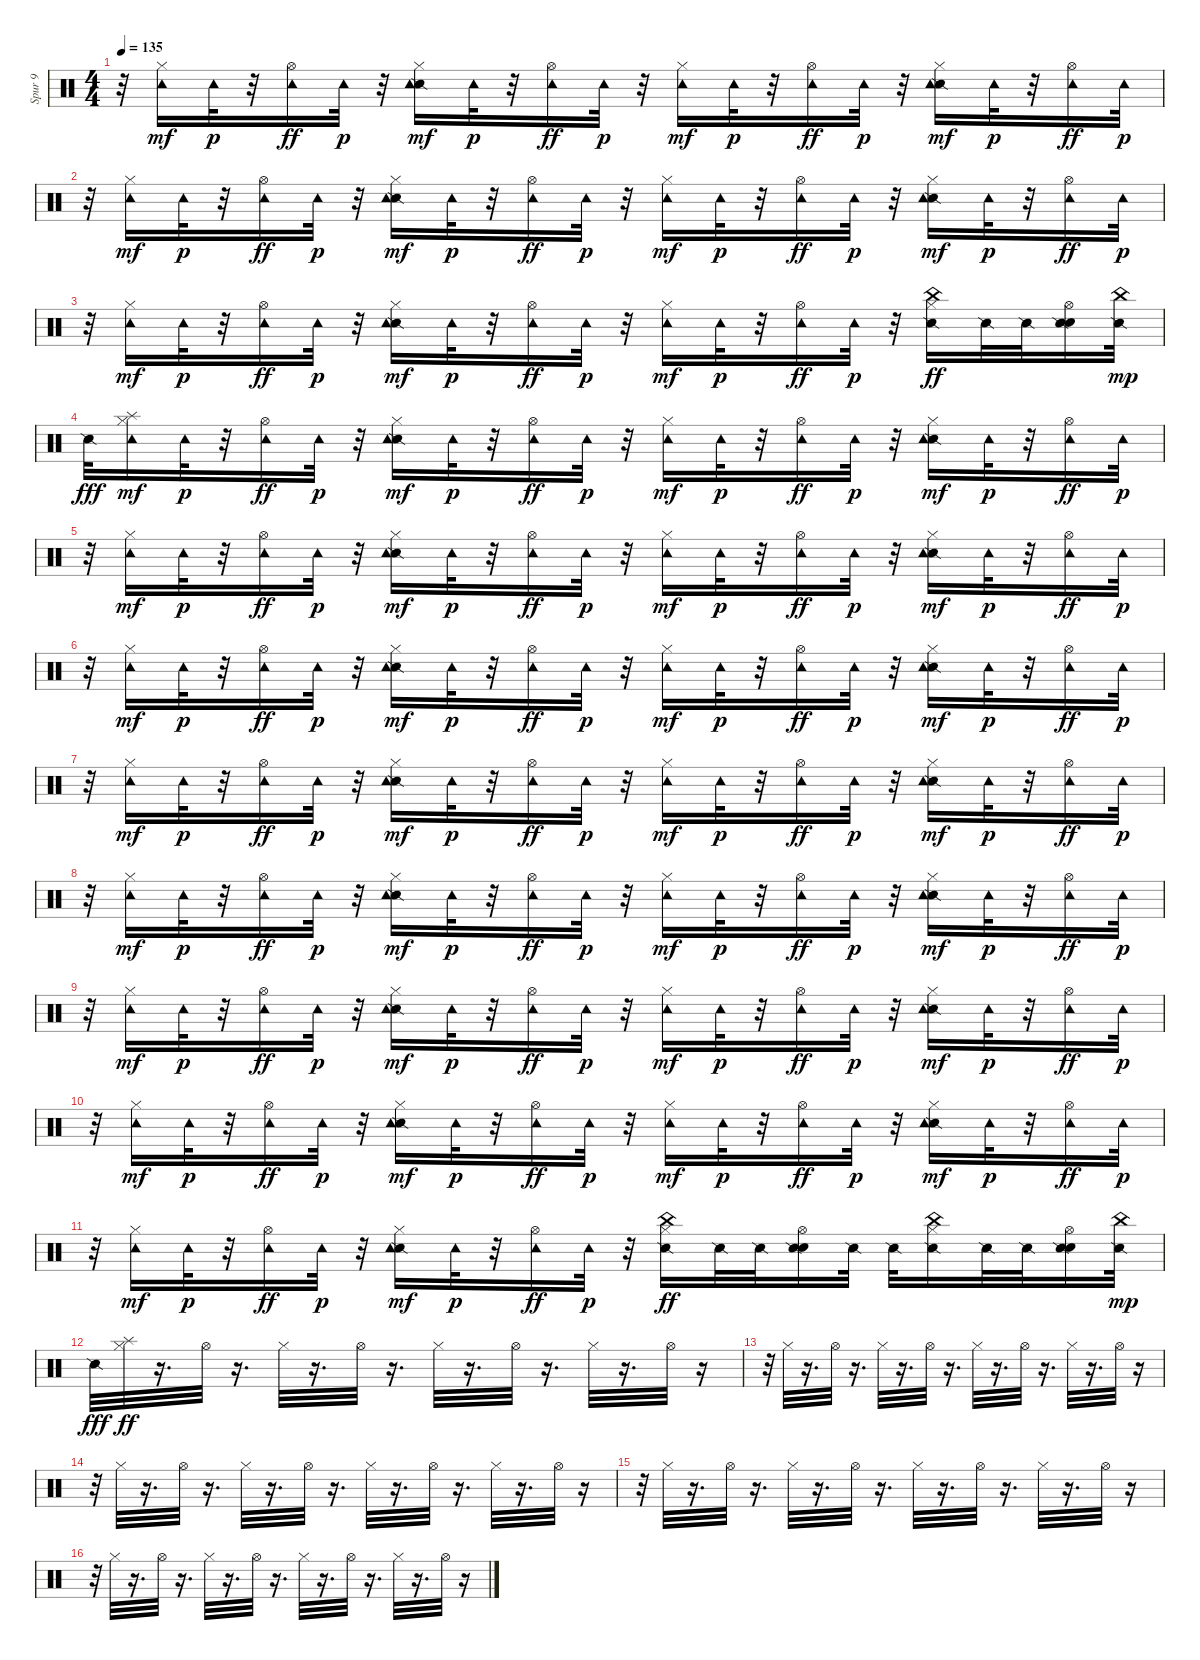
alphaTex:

\track ("Spur 9" "Spur 9") {instrument percussion}
\staff {score}
\articulation defaults
\ts (4 4)
\tempo 135
\clef neutral
\ks c
r.32{dy p} ("Hi-Hat (closed)" "Tambourine (hit)").16{dy mf} "Tambourine (hit)".32{dy p} r.32 ("Hi-Hat (open)" "Tambourine (hit)").16{dy ff} "Tambourine (hit)".32{dy p} r.32 ("Snare (side stick) 2" "Hi-Hat (closed)" "Tambourine (hit)").16{dy mf} "Tambourine (hit)".32{dy p} r.32 ("Hi-Hat (open)" "Tambourine (hit)").16{dy ff} "Tambourine (hit)".32{dy p} r.32 ("Hi-Hat (closed)" "Tambourine (hit)").16{dy mf} "Tambourine (hit)".32{dy p} r.32 ("Hi-Hat (open)" "Tambourine (hit)").16{dy ff} "Tambourine (hit)".32{dy p} r.32 ("Snare (side stick) 2" "Hi-Hat (closed)" "Tambourine (hit)").16{dy mf} "Tambourine (hit)".32{dy p} r.32 ("Hi-Hat (open)" "Tambourine (hit)").16{dy ff} "Tambourine (hit)".32{dy p} |
r.32 ("Hi-Hat (closed)" "Tambourine (hit)").16{dy mf} "Tambourine (hit)".32{dy p} r.32 ("Hi-Hat (open)" "Tambourine (hit)").16{dy ff} "Tambourine (hit)".32{dy p} r.32 ("Snare (side stick) 2" "Hi-Hat (closed)" "Tambourine (hit)").16{dy mf} "Tambourine (hit)".32{dy p} r.32 ("Hi-Hat (open)" "Tambourine (hit)").16{dy ff} "Tambourine (hit)".32{dy p} r.32 ("Hi-Hat (closed)" "Tambourine (hit)").16{dy mf} "Tambourine (hit)".32{dy p} r.32 ("Hi-Hat (open)" "Tambourine (hit)").16{dy ff} "Tambourine (hit)".32{dy p} r.32 ("Snare (side stick) 2" "Hi-Hat (closed)" "Tambourine (hit)").16{dy mf} "Tambourine (hit)".32{dy p} r.32 ("Hi-Hat (open)" "Tambourine (hit)").16{dy ff} "Tambourine (hit)".32{dy p} |
r.32 ("Hi-Hat (closed)" "Tambourine (hit)").16{dy mf} "Tambourine (hit)".32{dy p} r.32 ("Hi-Hat (open)" "Tambourine (hit)").16{dy ff} "Tambourine (hit)".32{dy p} r.32 ("Snare (side stick) 2" "Hi-Hat (closed)" "Tambourine (hit)").16{dy mf} "Tambourine (hit)".32{dy p} r.32 ("Hi-Hat (open)" "Tambourine (hit)").16{dy ff} "Tambourine (hit)".32{dy p} r.32 ("Hi-Hat (closed)" "Tambourine (hit)").16{dy mf} "Tambourine (hit)".32{dy p} r.32 ("Hi-Hat (open)" "Tambourine (hit)").16{dy ff} "Tambourine (hit)".32{dy p} r.32 ("Snare (side stick) 2" "Hi-Hat (closed)" "China (hit)").16{dy ff} "Snare (side stick) 2".32 "Snare (side stick) 2".32 ("Snare (hit)" "Snare (side stick) 2" "Hi-Hat (open)").16 ("Snare (side stick) 2" "China (hit)").32{dy mp} |
"Snare (side stick) 2".32{dy fff} ("Splash (hit)" "Hi-Hat (closed)" "Tambourine (hit)").16{dy mf} "Tambourine (hit)".32{dy p} r.32 ("Hi-Hat (open)" "Tambourine (hit)").16{dy ff} "Tambourine (hit)".32{dy p} r.32 ("Snare (side stick) 2" "Hi-Hat (closed)" "Tambourine (hit)").16{dy mf} "Tambourine (hit)".32{dy p} r.32 ("Hi-Hat (open)" "Tambourine (hit)").16{dy ff} "Tambourine (hit)".32{dy p} r.32 ("Hi-Hat (closed)" "Tambourine (hit)").16{dy mf} "Tambourine (hit)".32{dy p} r.32 ("Hi-Hat (open)" "Tambourine (hit)").16{dy ff} "Tambourine (hit)".32{dy p} r.32 ("Snare (side stick) 2" "Hi-Hat (closed)" "Tambourine (hit)").16{dy mf} "Tambourine (hit)".32{dy p} r.32 ("Hi-Hat (open)" "Tambourine (hit)").16{dy ff} "Tambourine (hit)".32{dy p} |
r.32 ("Hi-Hat (closed)" "Tambourine (hit)").16{dy mf} "Tambourine (hit)".32{dy p} r.32 ("Hi-Hat (open)" "Tambourine (hit)").16{dy ff} "Tambourine (hit)".32{dy p} r.32 ("Snare (side stick) 2" "Hi-Hat (closed)" "Tambourine (hit)").16{dy mf} "Tambourine (hit)".32{dy p} r.32 ("Hi-Hat (open)" "Tambourine (hit)").16{dy ff} "Tambourine (hit)".32{dy p} r.32 ("Hi-Hat (closed)" "Tambourine (hit)").16{dy mf} "Tambourine (hit)".32{dy p} r.32 ("Hi-Hat (open)" "Tambourine (hit)").16{dy ff} "Tambourine (hit)".32{dy p} r.32 ("Snare (side stick) 2" "Hi-Hat (closed)" "Tambourine (hit)").16{dy mf} "Tambourine (hit)".32{dy p} r.32 ("Hi-Hat (open)" "Tambourine (hit)").16{dy ff} "Tambourine (hit)".32{dy p} |
r.32 ("Hi-Hat (closed)" "Tambourine (hit)").16{dy mf} "Tambourine (hit)".32{dy p} r.32 ("Hi-Hat (open)" "Tambourine (hit)").16{dy ff} "Tambourine (hit)".32{dy p} r.32 ("Snare (side stick) 2" "Hi-Hat (closed)" "Tambourine (hit)").16{dy mf} "Tambourine (hit)".32{dy p} r.32 ("Hi-Hat (open)" "Tambourine (hit)").16{dy ff} "Tambourine (hit)".32{dy p} r.32 ("Hi-Hat (closed)" "Tambourine (hit)").16{dy mf} "Tambourine (hit)".32{dy p} r.32 ("Hi-Hat (open)" "Tambourine (hit)").16{dy ff} "Tambourine (hit)".32{dy p} r.32 ("Snare (side stick) 2" "Hi-Hat (closed)" "Tambourine (hit)").16{dy mf} "Tambourine (hit)".32{dy p} r.32 ("Hi-Hat (open)" "Tambourine (hit)").16{dy ff} "Tambourine (hit)".32{dy p} |
r.32 ("Hi-Hat (closed)" "Tambourine (hit)").16{dy mf} "Tambourine (hit)".32{dy p} r.32 ("Hi-Hat (open)" "Tambourine (hit)").16{dy ff} "Tambourine (hit)".32{dy p} r.32 ("Snare (side stick) 2" "Hi-Hat (closed)" "Tambourine (hit)").16{dy mf} "Tambourine (hit)".32{dy p} r.32 ("Hi-Hat (open)" "Tambourine (hit)").16{dy ff} "Tambourine (hit)".32{dy p} r.32 ("Hi-Hat (closed)" "Tambourine (hit)").16{dy mf} "Tambourine (hit)".32{dy p} r.32 ("Hi-Hat (open)" "Tambourine (hit)").16{dy ff} "Tambourine (hit)".32{dy p} r.32 ("Snare (side stick) 2" "Hi-Hat (closed)" "Tambourine (hit)").16{dy mf} "Tambourine (hit)".32{dy p} r.32 ("Hi-Hat (open)" "Tambourine (hit)").16{dy ff} "Tambourine (hit)".32{dy p} |
r.32 ("Hi-Hat (closed)" "Tambourine (hit)").16{dy mf} "Tambourine (hit)".32{dy p} r.32 ("Hi-Hat (open)" "Tambourine (hit)").16{dy ff} "Tambourine (hit)".32{dy p} r.32 ("Snare (side stick) 2" "Hi-Hat (closed)" "Tambourine (hit)").16{dy mf} "Tambourine (hit)".32{dy p} r.32 ("Hi-Hat (open)" "Tambourine (hit)").16{dy ff} "Tambourine (hit)".32{dy p} r.32 ("Hi-Hat (closed)" "Tambourine (hit)").16{dy mf} "Tambourine (hit)".32{dy p} r.32 ("Hi-Hat (open)" "Tambourine (hit)").16{dy ff} "Tambourine (hit)".32{dy p} r.32 ("Snare (side stick) 2" "Hi-Hat (closed)" "Tambourine (hit)").16{dy mf} "Tambourine (hit)".32{dy p} r.32 ("Hi-Hat (open)" "Tambourine (hit)").16{dy ff} "Tambourine (hit)".32{dy p} |
r.32 ("Hi-Hat (closed)" "Tambourine (hit)").16{dy mf} "Tambourine (hit)".32{dy p} r.32 ("Hi-Hat (open)" "Tambourine (hit)").16{dy ff} "Tambourine (hit)".32{dy p} r.32 ("Snare (side stick) 2" "Hi-Hat (closed)" "Tambourine (hit)").16{dy mf} "Tambourine (hit)".32{dy p} r.32 ("Hi-Hat (open)" "Tambourine (hit)").16{dy ff} "Tambourine (hit)".32{dy p} r.32 ("Hi-Hat (closed)" "Tambourine (hit)").16{dy mf} "Tambourine (hit)".32{dy p} r.32 ("Hi-Hat (open)" "Tambourine (hit)").16{dy ff} "Tambourine (hit)".32{dy p} r.32 ("Snare (side stick) 2" "Hi-Hat (closed)" "Tambourine (hit)").16{dy mf} "Tambourine (hit)".32{dy p} r.32 ("Hi-Hat (open)" "Tambourine (hit)").16{dy ff} "Tambourine (hit)".32{dy p} |
r.32 ("Hi-Hat (closed)" "Tambourine (hit)").16{dy mf} "Tambourine (hit)".32{dy p} r.32 ("Hi-Hat (open)" "Tambourine (hit)").16{dy ff} "Tambourine (hit)".32{dy p} r.32 ("Snare (side stick) 2" "Hi-Hat (closed)" "Tambourine (hit)").16{dy mf} "Tambourine (hit)".32{dy p} r.32 ("Hi-Hat (open)" "Tambourine (hit)").16{dy ff} "Tambourine (hit)".32{dy p} r.32 ("Hi-Hat (closed)" "Tambourine (hit)").16{dy mf} "Tambourine (hit)".32{dy p} r.32 ("Hi-Hat (open)" "Tambourine (hit)").16{dy ff} "Tambourine (hit)".32{dy p} r.32 ("Snare (side stick) 2" "Hi-Hat (closed)" "Tambourine (hit)").16{dy mf} "Tambourine (hit)".32{dy p} r.32 ("Hi-Hat (open)" "Tambourine (hit)").16{dy ff} "Tambourine (hit)".32{dy p} |
r.32 ("Hi-Hat (closed)" "Tambourine (hit)").16{dy mf} "Tambourine (hit)".32{dy p} r.32 ("Hi-Hat (open)" "Tambourine (hit)").16{dy ff} "Tambourine (hit)".32{dy p} r.32 ("Snare (side stick) 2" "Hi-Hat (closed)" "Tambourine (hit)").16{dy mf} "Tambourine (hit)".32{dy p} r.32 ("Hi-Hat (open)" "Tambourine (hit)").16{dy ff} "Tambourine (hit)".32{dy p} r.32 ("Snare (side stick) 2" "Hi-Hat (closed)" "China (hit)").16{dy ff} "Snare (side stick) 2".32 "Snare (side stick) 2".32 ("Snare (hit)" "Snare (side stick) 2" "Hi-Hat (open)").16 "Snare (side stick) 2".32 "Snare (side stick) 2".32 ("Snare (side stick) 2" "Hi-Hat (closed)" "China (hit)").16 "Snare (side stick) 2".32 "Snare (side stick) 2".32 ("Snare (hit)" "Snare (side stick) 2" "Hi-Hat (open)").16 ("Snare (side stick) 2" "China (hit)").32{dy mp} |
"Snare (side stick) 2".32{dy fff} ("Splash (hit)" "Hi-Hat (closed)").32{dy ff} r.16{d} "Hi-Hat (open)".32 r.16{d} "Hi-Hat (closed)".32 r.16{d} "Hi-Hat (open)".32 r.16{d} "Hi-Hat (closed)".32 r.16{d} "Hi-Hat (open)".32 r.16{d} "Hi-Hat (closed)".32 r.16{d} "Hi-Hat (open)".32 r.16 |
r.32 "Hi-Hat (closed)".32 r.16{d} "Hi-Hat (open)".32 r.16{d} "Hi-Hat (closed)".32 r.16{d} "Hi-Hat (open)".32 r.16{d} "Hi-Hat (closed)".32 r.16{d} "Hi-Hat (open)".32 r.16{d} "Hi-Hat (closed)".32 r.16{d} "Hi-Hat (open)".32 r.16 |
r.32 "Hi-Hat (closed)".32 r.16{d} "Hi-Hat (open)".32 r.16{d} "Hi-Hat (closed)".32 r.16{d} "Hi-Hat (open)".32 r.16{d} "Hi-Hat (closed)".32 r.16{d} "Hi-Hat (open)".32 r.16{d} "Hi-Hat (closed)".32 r.16{d} "Hi-Hat (open)".32 r.16 |
r.32 "Hi-Hat (closed)".32 r.16{d} "Hi-Hat (open)".32 r.16{d} "Hi-Hat (closed)".32 r.16{d} "Hi-Hat (open)".32 r.16{d} "Hi-Hat (closed)".32 r.16{d} "Hi-Hat (open)".32 r.16{d} "Hi-Hat (closed)".32 r.16{d} "Hi-Hat (open)".32 r.16 |
r.32 "Hi-Hat (closed)".32 r.16{d} "Hi-Hat (open)".32 r.16{d} "Hi-Hat (closed)".32 r.16{d} "Hi-Hat (open)".32 r.16{d} "Hi-Hat (closed)".32 r.16{d} "Hi-Hat (open)".32 r.16{d} "Hi-Hat (closed)".32 r.16{d} "Hi-Hat (open)".32 r.16
